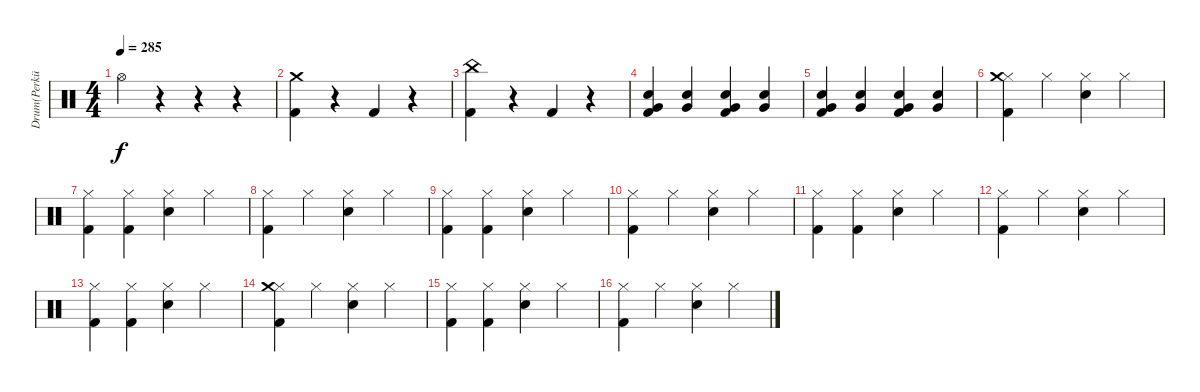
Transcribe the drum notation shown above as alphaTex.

\track ("Drum(Perküsyon)" "Drum(Perkü") {instrument percussion}
\staff {score}
\articulation defaults
\ts (4 4)
\tempo 285
\clef neutral
\ks c "Hi-Hat (open)".4{dy f}
r.4 r.4 r.4 |
("Kick (hit) 2" "Crash medium (hit)").4 r.4 "Kick (hit) 2".4 r.4 |
("Kick (hit) 2" "China (hit)").4 r.4 "Kick (hit) 2".4 r.4 |
("Kick (hit) 2" "Electric Snare (hit)" "Very Low Tom (hit)").4 ("Electric Snare (hit)" "Very Low Tom (hit)").4 ("Kick (hit) 2" "Electric Snare (hit)" "Very Low Tom (hit)").4 ("Electric Snare (hit)" "Very Low Tom (hit)").4 |
("Kick (hit) 2" "Electric Snare (hit)" "Very Low Tom (hit)").4 ("Electric Snare (hit)" "Very Low Tom (hit)").4 ("Kick (hit) 2" "Electric Snare (hit)" "Very Low Tom (hit)").4 ("Electric Snare (hit)" "Very Low Tom (hit)").4 |
("Hi-Hat (closed)" "Kick (hit) 2" "Crash medium (hit)").4 "Hi-Hat (closed)".4 ("Hi-Hat (closed)" "Electric Snare (hit)").4 "Hi-Hat (closed)".4 |
("Hi-Hat (closed)" "Kick (hit) 2").4 ("Hi-Hat (closed)" "Kick (hit) 2").4 ("Hi-Hat (closed)" "Electric Snare (hit)").4 "Hi-Hat (closed)".4 |
("Hi-Hat (closed)" "Kick (hit) 2").4 "Hi-Hat (closed)".4 ("Hi-Hat (closed)" "Electric Snare (hit)").4 "Hi-Hat (closed)".4 |
("Hi-Hat (closed)" "Kick (hit) 2").4 ("Hi-Hat (closed)" "Kick (hit) 2").4 ("Hi-Hat (closed)" "Electric Snare (hit)").4 "Hi-Hat (closed)".4 |
("Hi-Hat (closed)" "Kick (hit) 2").4 "Hi-Hat (closed)".4 ("Hi-Hat (closed)" "Electric Snare (hit)").4 "Hi-Hat (closed)".4 |
("Hi-Hat (closed)" "Kick (hit) 2").4 ("Hi-Hat (closed)" "Kick (hit) 2").4 ("Hi-Hat (closed)" "Electric Snare (hit)").4 "Hi-Hat (closed)".4 |
("Hi-Hat (closed)" "Kick (hit) 2").4 "Hi-Hat (closed)".4 ("Hi-Hat (closed)" "Electric Snare (hit)").4 "Hi-Hat (closed)".4 |
("Hi-Hat (closed)" "Kick (hit) 2").4 ("Hi-Hat (closed)" "Kick (hit) 2").4 ("Hi-Hat (closed)" "Electric Snare (hit)").4 "Hi-Hat (closed)".4 |
("Hi-Hat (closed)" "Kick (hit) 2" "Crash medium (hit)").4 "Hi-Hat (closed)".4 ("Hi-Hat (closed)" "Electric Snare (hit)").4 "Hi-Hat (closed)".4 |
("Hi-Hat (closed)" "Kick (hit) 2").4 ("Hi-Hat (closed)" "Kick (hit) 2").4 ("Hi-Hat (closed)" "Electric Snare (hit)").4 "Hi-Hat (closed)".4 |
("Hi-Hat (closed)" "Kick (hit) 2").4 "Hi-Hat (closed)".4 ("Hi-Hat (closed)" "Electric Snare (hit)").4 "Hi-Hat (closed)".4
